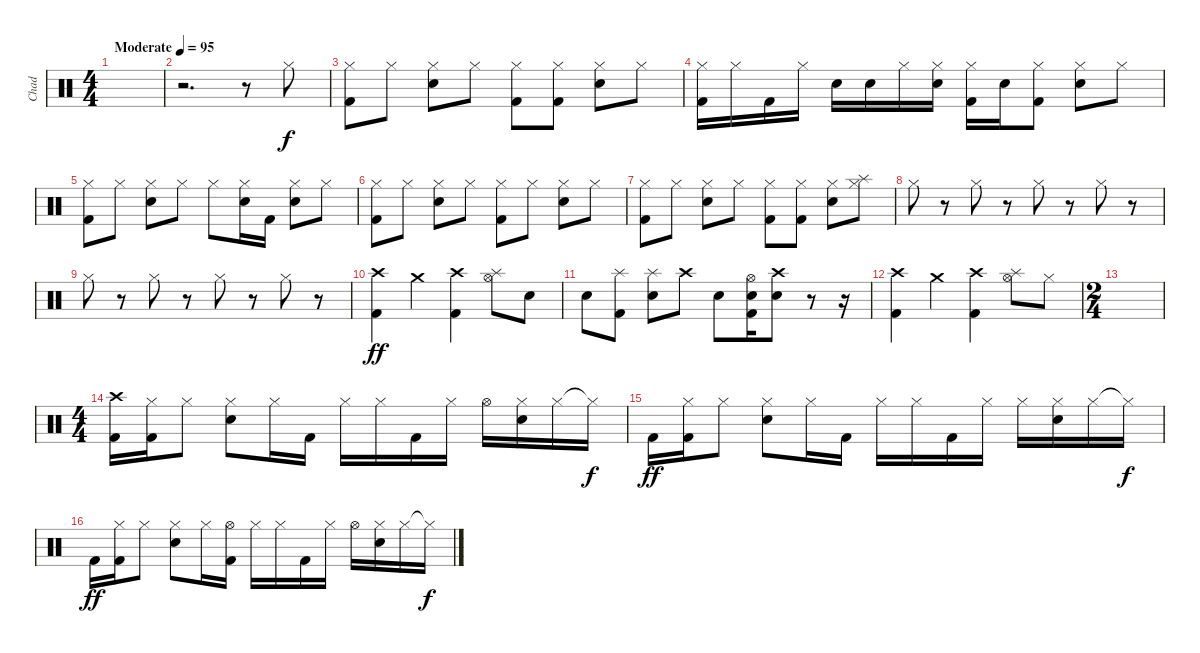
\track ("Chad" "Chad") {instrument percussion}
\staff {score}
\articulation defaults
\ts (4 4)
\tempo (95 "Moderate")
\clef neutral
\ks c
|
r.2{d} r.8 "Hi-Hat (closed)".8 |
("Hi-Hat (closed)" "Kick (hit) 2").8 "Hi-Hat (closed)".8 ("Hi-Hat (closed)" "Electric Snare (hit)").8 "Hi-Hat (closed)".8 ("Hi-Hat (closed)" "Kick (hit) 2").8 ("Hi-Hat (closed)" "Kick (hit) 2").8 ("Hi-Hat (closed)" "Electric Snare (hit)").8 "Hi-Hat (closed)".8 |
("Hi-Hat (closed)" "Kick (hit) 2").16 "Hi-Hat (closed)".16 "Kick (hit) 2".16 "Hi-Hat (closed)".16 "Electric Snare (hit)".16 "Electric Snare (hit)".16 "Hi-Hat (closed)".16 ("Electric Snare (hit)" "Hi-Hat (closed)").16 ("Hi-Hat (closed)" "Kick (hit) 2").16 "Electric Snare (hit)".16 ("Hi-Hat (closed)" "Kick (hit) 2").8 ("Hi-Hat (closed)" "Electric Snare (hit)").8 "Hi-Hat (closed)".8 |
("Hi-Hat (closed)" "Kick (hit) 2").8 "Hi-Hat (closed)".8 ("Hi-Hat (closed)" "Electric Snare (hit)").8 "Hi-Hat (closed)".8 "Hi-Hat (closed)".8 ("Hi-Hat (closed)" "Electric Snare (hit)").16 "Kick (hit) 2".16 ("Hi-Hat (closed)" "Electric Snare (hit)").8 "Hi-Hat (closed)".8 |
("Hi-Hat (closed)" "Kick (hit) 2").8 "Hi-Hat (closed)".8 ("Hi-Hat (closed)" "Electric Snare (hit)").8 "Hi-Hat (closed)".8 ("Hi-Hat (closed)" "Kick (hit) 2").8 "Hi-Hat (closed)".8 ("Hi-Hat (closed)" "Electric Snare (hit)").8 "Hi-Hat (closed)".8 |
("Hi-Hat (closed)" "Kick (hit) 2").8 "Hi-Hat (closed)".8 ("Hi-Hat (closed)" "Electric Snare (hit)").8 "Hi-Hat (closed)".8 ("Hi-Hat (closed)" "Kick (hit) 2").8 ("Hi-Hat (closed)" "Kick (hit) 2").8 ("Hi-Hat (closed)" "Electric Snare (hit)").8 ("Splash (hit)" "Hi-Hat (closed)").8 |
"Hi-Hat (closed)".8 r.8 "Hi-Hat (closed)".8 r.8 "Hi-Hat (closed)".8 r.8 "Hi-Hat (closed)".8 r.8 |
"Hi-Hat (closed)".8 r.8 "Hi-Hat (closed)".8 r.8 "Hi-Hat (closed)".8 r.8 "Hi-Hat (closed)".8 r.8 |
("Crash high (hit)" "Kick (hit) 2").4{dy ff} "Crash medium (hit)".4 ("Crash high (hit)" "Kick (hit) 2").4 ("Hi-Hat (open)" "Splash (hit)").8 "Electric Snare (hit)".8 |
"Electric Snare (hit)".8 ("Splash (hit)" "Kick (hit) 2").8 ("Splash (hit)" "Electric Snare (hit)").8 "Crash high (hit)".8 "Electric Snare (hit)".8 ("Electric Snare (hit)" "Hi-Hat (open)" "Kick (hit) 2").16 ("Crash high (hit)" "Electric Snare (hit)").8 r.8 r.16 |
("Crash high (hit)" "Kick (hit) 2").4 "Crash medium (hit)".4 ("Crash high (hit)" "Kick (hit) 2").4 ("Hi-Hat (open)" "Splash (hit)").8 "Hi-Hat (closed)".8 |
\ts (2 4)
|
\ts (4 4)
("Crash high (hit)" "Kick (hit) 2").16 ("Hi-Hat (closed)" "Kick (hit) 2").16 "Hi-Hat (closed)".8 ("Electric Snare (hit)" "Hi-Hat (closed)").8 "Hi-Hat (closed)".16 "Kick (hit) 2".16 "Hi-Hat (closed)".16 "Hi-Hat (closed)".16 "Kick (hit) 2".16 "Hi-Hat (closed)".16 "Hi-Hat (open)".16 ("Electric Snare (hit)" "Hi-Hat (closed)").16 "Hi-Hat (closed)".16 "Hi-Hat (closed)"{t}.16{dy f} |
"Kick (hit) 2".16{dy ff} ("Hi-Hat (closed)" "Kick (hit) 2").16 "Hi-Hat (closed)".8 ("Electric Snare (hit)" "Hi-Hat (closed)").8 "Hi-Hat (closed)".16 "Kick (hit) 2".16 "Hi-Hat (closed)".16 "Hi-Hat (closed)".16 "Kick (hit) 2".16 "Hi-Hat (closed)".16 "Hi-Hat (closed)".16 ("Electric Snare (hit)" "Hi-Hat (closed)").16 "Hi-Hat (closed)".16 "Hi-Hat (closed)"{t}.16{dy f} |
"Kick (hit) 2".16{dy ff} ("Hi-Hat (closed)" "Kick (hit) 2").16 "Hi-Hat (closed)".8 ("Electric Snare (hit)" "Hi-Hat (closed)").8 "Hi-Hat (closed)".16 ("Hi-Hat (open)" "Kick (hit) 2").16 "Hi-Hat (closed)".16 "Hi-Hat (closed)".16 "Kick (hit) 2".16 "Hi-Hat (closed)".16 "Hi-Hat (open)".16 ("Electric Snare (hit)" "Hi-Hat (closed)").16 "Hi-Hat (closed)".16 "Hi-Hat (closed)"{t}.16{dy f}
